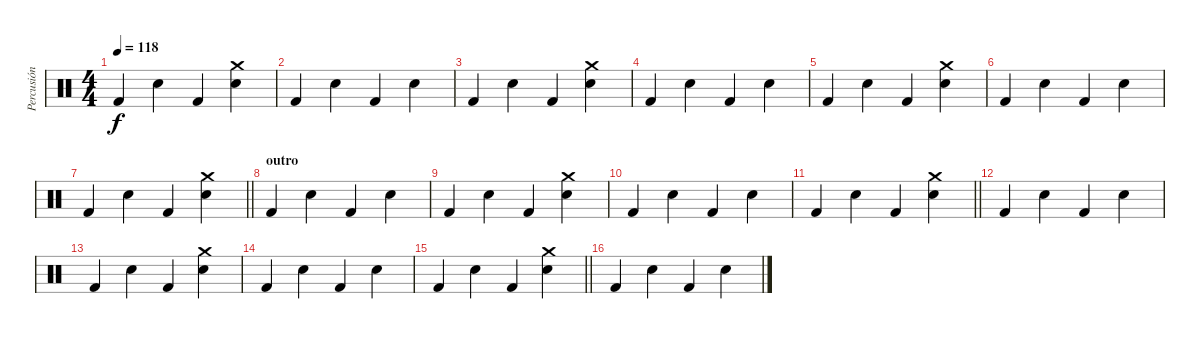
\track ("Percusión" "Percusión") {instrument percussion}
\staff {score}
\articulation defaults
\ts (4 4)
\tempo 118
\clef neutral
\ks c "Kick (hit) 2".4{dy f} "Hand Clap (hit)".4 "Kick (hit) 2".4
("Hand Clap (hit)" "Crash medium (hit)").4 |
"Kick (hit) 2".4 "Hand Clap (hit)".4 "Kick (hit) 2".4 "Hand Clap (hit)".4 |
"Kick (hit) 2".4 "Hand Clap (hit)".4 "Kick (hit) 2".4 ("Hand Clap (hit)" "Crash medium (hit)").4 |
"Kick (hit) 2".4 "Hand Clap (hit)".4 "Kick (hit) 2".4 "Hand Clap (hit)".4 |
"Kick (hit) 2".4 "Hand Clap (hit)".4 "Kick (hit) 2".4 ("Hand Clap (hit)" "Crash medium (hit)").4 |
"Kick (hit) 2".4 "Hand Clap (hit)".4 "Kick (hit) 2".4 "Hand Clap (hit)".4 |
\barLineRight lightlight "Kick (hit) 2".4 "Hand Clap (hit)".4 "Kick (hit) 2".4
("Hand Clap (hit)" "Crash medium (hit)").4 |
\section ("" "outro")
"Kick (hit) 2".4 "Hand Clap (hit)".4 "Kick (hit) 2".4 "Hand Clap (hit)".4 |
"Kick (hit) 2".4 "Hand Clap (hit)".4 "Kick (hit) 2".4 ("Hand Clap (hit)" "Crash medium (hit)").4 |
"Kick (hit) 2".4 "Hand Clap (hit)".4 "Kick (hit) 2".4 "Hand Clap (hit)".4 |
\barLineRight lightlight "Kick (hit) 2".4 "Hand Clap (hit)".4 "Kick (hit) 2".4
("Hand Clap (hit)" "Crash medium (hit)").4 |
"Kick (hit) 2".4 "Hand Clap (hit)".4 "Kick (hit) 2".4 "Hand Clap (hit)".4 |
"Kick (hit) 2".4 "Hand Clap (hit)".4 "Kick (hit) 2".4 ("Hand Clap (hit)" "Crash medium (hit)").4 |
"Kick (hit) 2".4 "Hand Clap (hit)".4 "Kick (hit) 2".4 "Hand Clap (hit)".4 |
\barLineRight lightlight "Kick (hit) 2".4 "Hand Clap (hit)".4 "Kick (hit) 2".4
("Hand Clap (hit)" "Crash medium (hit)").4 |
"Kick (hit) 2".4 "Hand Clap (hit)".4 "Kick (hit) 2".4 "Hand Clap (hit)".4
